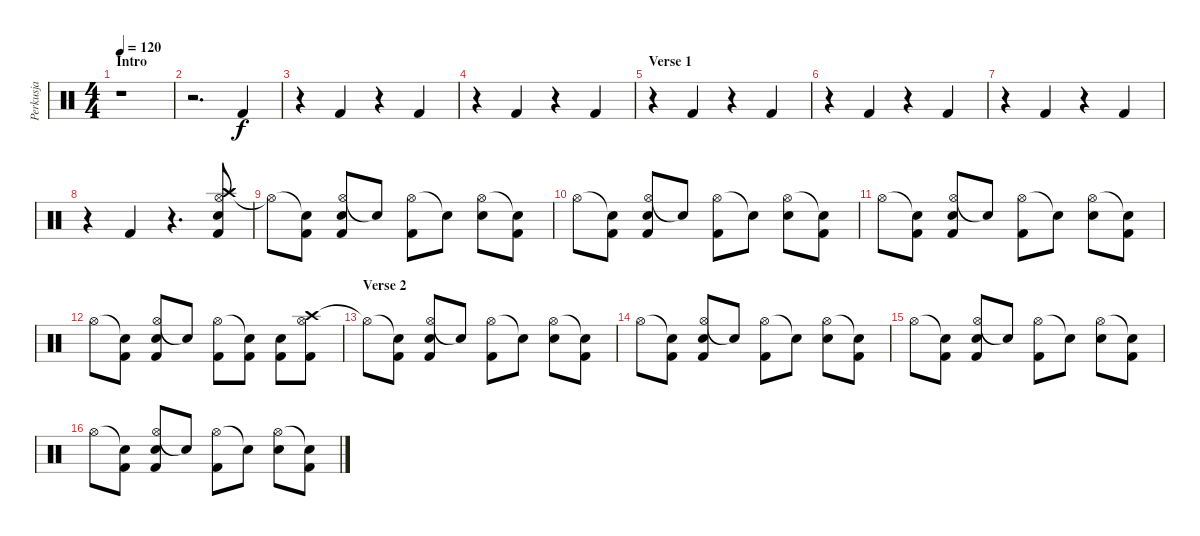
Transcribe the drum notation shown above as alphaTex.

\track ("Perkusja" "Perkusja") {instrument percussion}
\staff {score}
\articulation defaults
\ts (4 4)
\section ("" "Intro")
\tempo 120
\clef neutral
\ks c
r.1{dy f} |
r.2{d} "Kick (hit) 2".4 |
r.4 "Kick (hit) 2".4 r.4 "Kick (hit) 2".4 |
r.4 "Kick (hit) 2".4 r.4 "Kick (hit) 2".4 |
\section ("" "Verse 1")
r.4 "Kick (hit) 2".4 r.4 "Kick (hit) 2".4 |
r.4 "Kick (hit) 2".4 r.4 "Kick (hit) 2".4 |
r.4 "Kick (hit) 2".4 r.4 "Kick (hit) 2".4 |
r.4 "Kick (hit) 2".4 r.4{d} ("Crash high (hit)" "Hi-Hat (open)" "Electric Snare (hit)" "Kick (hit) 2").8 |
"Hi-Hat (open)"{t}.8 ("Snare (hit)"{t} "Kick (hit) 2").8 ("Hi-Hat (open)" "Electric Snare (hit)" "Kick (hit) 2").8 "Snare (hit)"{t}.8 ("Hi-Hat (open)" "Kick (hit) 2").8 "Snare (hit)"{t}.8 ("Hi-Hat (open)" "Electric Snare (hit)").8 ("Snare (hit)"{t} "Kick (hit) 2").8 |
"Hi-Hat (open)".8 ("Snare (hit)"{t} "Kick (hit) 2").8 ("Hi-Hat (open)" "Electric Snare (hit)" "Kick (hit) 2").8 "Snare (hit)"{t}.8 ("Hi-Hat (open)" "Kick (hit) 2").8 "Snare (hit)"{t}.8 ("Hi-Hat (open)" "Electric Snare (hit)").8 ("Snare (hit)"{t} "Kick (hit) 2").8 |
"Hi-Hat (open)".8 ("Snare (hit)"{t} "Kick (hit) 2").8 ("Hi-Hat (open)" "Electric Snare (hit)" "Kick (hit) 2").8 "Snare (hit)"{t}.8 ("Hi-Hat (open)" "Kick (hit) 2").8 "Snare (hit)"{t}.8 ("Hi-Hat (open)" "Electric Snare (hit)").8 ("Snare (hit)"{t} "Kick (hit) 2").8 |
"Hi-Hat (open)".8 ("Snare (hit)"{t} "Kick (hit) 2").8 ("Hi-Hat (open)" "Electric Snare (hit)" "Kick (hit) 2").8 "Snare (hit)"{t}.8 ("Hi-Hat (open)" "Kick (hit) 2").8 ("Snare (hit)"{t} "Kick (hit) 2").8 ("Electric Snare (hit)" "Kick (hit) 2").8 ("Crash high (hit)" "Hi-Hat (open)" "Kick (hit) 2").8 |
\section ("" "Verse 2")
"Hi-Hat (open)"{t}.8 ("Snare (hit)"{t} "Kick (hit) 2").8 ("Hi-Hat (open)" "Electric Snare (hit)" "Kick (hit) 2").8 "Snare (hit)"{t}.8 ("Hi-Hat (open)" "Kick (hit) 2").8 "Snare (hit)"{t}.8 ("Hi-Hat (open)" "Electric Snare (hit)").8 ("Snare (hit)"{t} "Kick (hit) 2").8 |
"Hi-Hat (open)".8 ("Snare (hit)"{t} "Kick (hit) 2").8 ("Hi-Hat (open)" "Electric Snare (hit)" "Kick (hit) 2").8 "Snare (hit)"{t}.8 ("Hi-Hat (open)" "Kick (hit) 2").8 "Snare (hit)"{t}.8 ("Hi-Hat (open)" "Electric Snare (hit)").8 ("Snare (hit)"{t} "Kick (hit) 2").8 |
"Hi-Hat (open)".8 ("Snare (hit)"{t} "Kick (hit) 2").8 ("Hi-Hat (open)" "Electric Snare (hit)" "Kick (hit) 2").8 "Snare (hit)"{t}.8 ("Hi-Hat (open)" "Kick (hit) 2").8 "Snare (hit)"{t}.8 ("Hi-Hat (open)" "Electric Snare (hit)").8 ("Snare (hit)"{t} "Kick (hit) 2").8 |
"Hi-Hat (open)".8 ("Snare (hit)"{t} "Kick (hit) 2").8 ("Hi-Hat (open)" "Electric Snare (hit)" "Kick (hit) 2").8 "Snare (hit)"{t}.8 ("Hi-Hat (open)" "Kick (hit) 2").8 "Snare (hit)"{t}.8 ("Hi-Hat (open)" "Electric Snare (hit)").8 ("Snare (hit)"{t} "Kick (hit) 2").8
